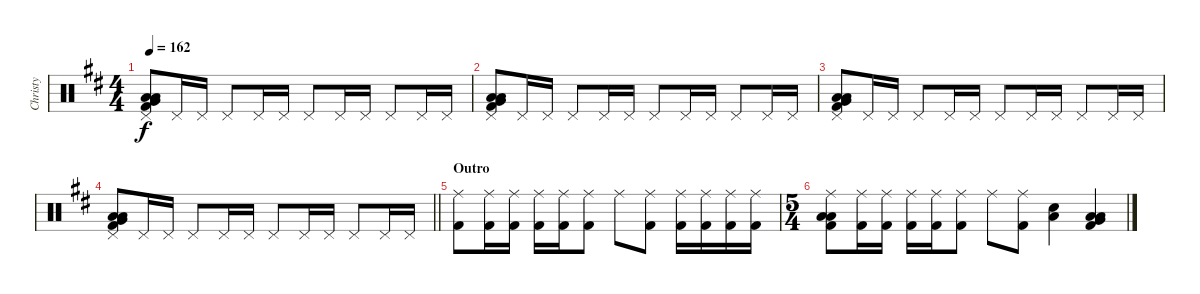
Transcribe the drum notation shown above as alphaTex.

\track ("Christy" "Christy") {instrument percussion}
\staff {score}
\articulation defaults
\ts (4 4)
\tempo 162
\clef neutral
\ks d
("Pedal Hi-Hat (hit)" "Low Floor Tom (hit)" "Very Low Tom (hit)" "Low Tom (hit)" "Kick (hit) 2").8{dy f} "Pedal Hi-Hat (hit)".16 "Pedal Hi-Hat (hit)".16 "Pedal Hi-Hat (hit)".8 "Pedal Hi-Hat (hit)".16 "Pedal Hi-Hat (hit)".16 "Pedal Hi-Hat (hit)".8 "Pedal Hi-Hat (hit)".16 "Pedal Hi-Hat (hit)".16 "Pedal Hi-Hat (hit)".8 "Pedal Hi-Hat (hit)".16 "Pedal Hi-Hat (hit)".16 |
("Pedal Hi-Hat (hit)" "Low Floor Tom (hit)" "Very Low Tom (hit)" "Low Tom (hit)" "Kick (hit) 2").8 "Pedal Hi-Hat (hit)".16 "Pedal Hi-Hat (hit)".16 "Pedal Hi-Hat (hit)".8 "Pedal Hi-Hat (hit)".16 "Pedal Hi-Hat (hit)".16 "Pedal Hi-Hat (hit)".8 "Pedal Hi-Hat (hit)".16 "Pedal Hi-Hat (hit)".16 "Pedal Hi-Hat (hit)".8 "Pedal Hi-Hat (hit)".16 "Pedal Hi-Hat (hit)".16 |
("Pedal Hi-Hat (hit)" "Low Floor Tom (hit)" "Very Low Tom (hit)" "Low Tom (hit)" "Kick (hit) 2").8 "Pedal Hi-Hat (hit)".16 "Pedal Hi-Hat (hit)".16 "Pedal Hi-Hat (hit)".8 "Pedal Hi-Hat (hit)".16 "Pedal Hi-Hat (hit)".16 "Pedal Hi-Hat (hit)".8 "Pedal Hi-Hat (hit)".16 "Pedal Hi-Hat (hit)".16 "Pedal Hi-Hat (hit)".8 "Pedal Hi-Hat (hit)".16 "Pedal Hi-Hat (hit)".16 |
\barLineRight lightlight
("Pedal Hi-Hat (hit)" "Low Floor Tom (hit)" "Very Low Tom (hit)" "Low Tom (hit)" "Kick (hit) 2").8 "Pedal Hi-Hat (hit)".16 "Pedal Hi-Hat (hit)".16 "Pedal Hi-Hat (hit)".8 "Pedal Hi-Hat (hit)".16 "Pedal Hi-Hat (hit)".16 "Pedal Hi-Hat (hit)".8 "Pedal Hi-Hat (hit)".16 "Pedal Hi-Hat (hit)".16 "Pedal Hi-Hat (hit)".8 "Pedal Hi-Hat (hit)".16 "Pedal Hi-Hat (hit)".16 |
\section ("" "Outro")
("Ride (middle)" "Kick (hit) 2").8 ("Ride (middle)" "Kick (hit) 2").16 ("Ride (middle)" "Kick (hit) 2").16 ("Ride (middle)" "Kick (hit) 2").16 ("Ride (middle)" "Kick (hit) 2").16 ("Ride (middle)" "Kick (hit) 2").8 "Ride (middle)".8 ("Ride (middle)" "Kick (hit) 2").8 ("Ride (middle)" "Kick (hit) 2").16 ("Ride (middle)" "Kick (hit) 2").16 ("Ride (middle)" "Kick (hit) 2").16 ("Ride (middle)" "Kick (hit) 2").16 |
\ts (5 4)
("Ride (middle)" "Low Floor Tom (hit)" "Low Tom (hit)" "Kick (hit) 2").8 ("Ride (middle)" "Kick (hit) 2").16 ("Ride (middle)" "Kick (hit) 2").16 ("Ride (middle)" "Kick (hit) 2").16 ("Ride (middle)" "Kick (hit) 2").16 ("Ride (middle)" "Kick (hit) 2").8 "Ride (middle)".8 ("Ride (middle)" "Kick (hit) 2").8 ("Low Tom (hit)" "Snare (hit) 2").4 ("Low Floor Tom (hit)" "Very Low Tom (hit)" "Low Tom (hit)" "Kick (hit) 2").4
